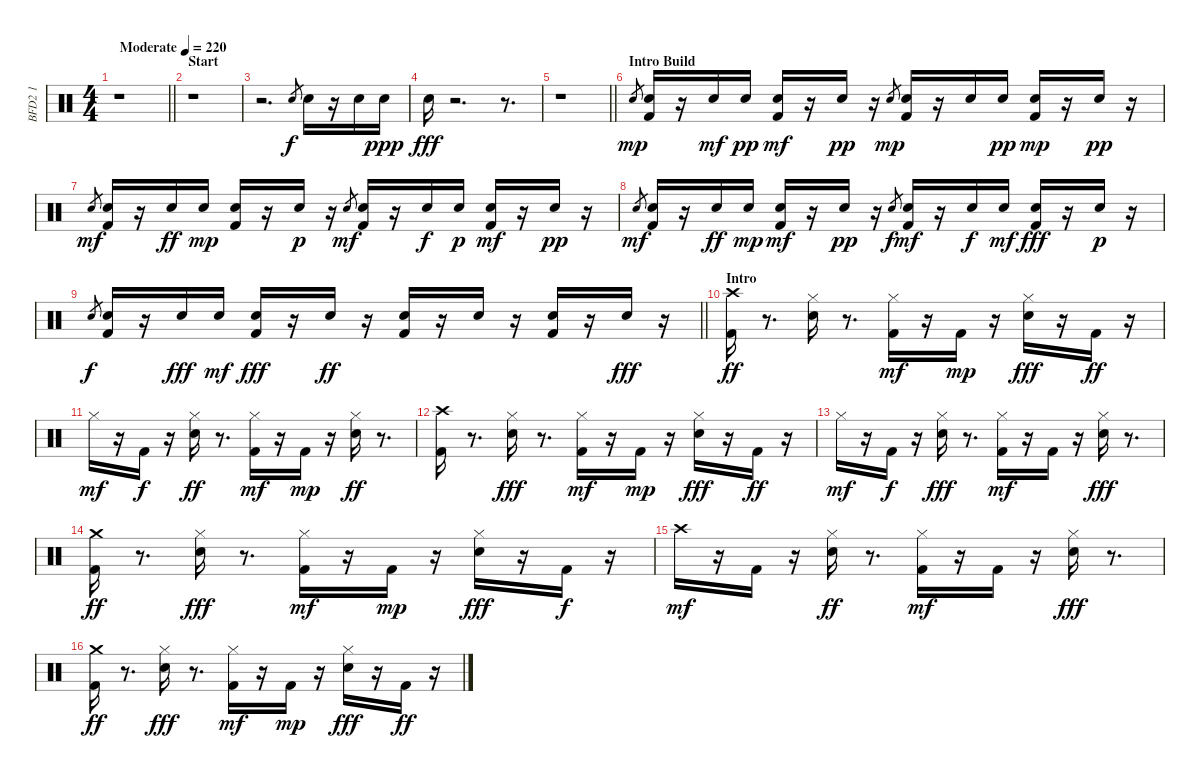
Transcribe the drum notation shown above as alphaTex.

\track ("BFD2 1" "BFD2 1") {instrument percussion}
\staff {score}
\articulation defaults
\ts (4 4)
\tempo (220 "Moderate")
\clef neutral
\barLineRight lightlight
\ks c
r.1{dy f} |
\section ("" "Start")
r.1 |
r.2{d} "Snare (hit) 2".8{gr} "Snare (hit) 2".16 r.16 "Snare (hit) 2".16 "Snare (hit) 2".16{dy ppp} |
"Snare (hit) 2".16{dy fff} r.2{d} r.8{d} |
\barLineRight lightlight
r.1 |
\section ("" "Intro Build")
"Snare (hit) 2".8{gr dy mp} ("Kick (hit) 2" "Snare (hit) 2").16 r.16 "Snare (hit) 2".16{dy mf} "Snare (hit) 2".16{dy pp} ("Kick (hit) 2" "Snare (hit) 2").16{dy mf} r.16 "Snare (hit) 2".16{dy pp} r.16 "Snare (hit) 2".8{gr dy mp} ("Kick (hit) 2" "Snare (hit) 2").16 r.16 "Snare (hit) 2".16 "Snare (hit) 2".16{dy pp} ("Kick (hit) 2" "Snare (hit) 2").16{dy mp} r.16 "Snare (hit) 2".16{dy pp} r.16 |
"Snare (hit) 2".8{gr dy mf} ("Snare (hit) 2" "Kick (hit) 2").16 r.16 "Snare (hit) 2".16{dy ff} "Snare (hit) 2".16{dy mp} ("Snare (hit) 2" "Kick (hit) 2").16 r.16 "Snare (hit) 2".16{dy p} r.16 "Snare (hit) 2".8{gr dy mf} ("Snare (hit) 2" "Kick (hit) 2").16 r.16 "Snare (hit) 2".16{dy f} "Snare (hit) 2".16{dy p} ("Snare (hit) 2" "Kick (hit) 2").16{dy mf} r.16 "Snare (hit) 2".16{dy pp} r.16 |
"Snare (hit) 2".8{gr dy mf} ("Snare (hit) 2" "Kick (hit) 2").16 r.16 "Snare (hit) 2".16{dy ff} "Snare (hit) 2".16{dy mp} ("Snare (hit) 2" "Kick (hit) 2").16{dy mf} r.16 "Snare (hit) 2".16{dy pp} r.16 "Snare (hit) 2".8{gr dy f} ("Kick (hit) 2" "Snare (hit) 2").16{dy mf} r.16 "Snare (hit) 2".16{dy f} "Snare (hit) 2".16{dy mf} ("Kick (hit) 2" "Snare (hit) 2").16{dy fff} r.16 "Snare (hit) 2".16{dy p} r.16 |
\barLineRight lightlight "Snare (hit) 2".8{gr dy f}
("Snare (hit) 2" "Kick (hit) 2").16 r.16 "Snare (hit) 2".16{dy fff} "Snare (hit) 2".16{dy mf} ("Snare (hit) 2" "Kick (hit) 2").16{dy fff} r.16 "Snare (hit) 2".16{dy ff} r.16 ("Snare (hit) 2" "Kick (hit) 2").16 r.16 "Snare (hit) 2".16 r.16 ("Snare (hit) 2" "Kick (hit) 2").16 r.16 "Snare (hit) 2".16{dy fff} r.16 |
\section ("" "Intro")
("Crash high (hit)" "Kick (hit) 2").16{dy ff} r.8{d} ("Hi-Hat (closed)" "Snare (hit) 2").16 r.8{d} ("Hi-Hat (closed)" "Kick (hit) 2").16{dy mf} r.16 "Kick (hit) 2".16{dy mp} r.16 ("Hi-Hat (closed)" "Snare (hit) 2").16{dy fff} r.16 "Kick (hit) 2".16{dy ff} r.16 |
"Hi-Hat (closed)".16{dy mf} r.16 "Kick (hit) 2".16{dy f} r.16 ("Hi-Hat (closed)" "Snare (hit) 2").16{dy ff} r.8{d} ("Hi-Hat (closed)" "Kick (hit) 2").16{dy mf} r.16 "Kick (hit) 2".16{dy mp} r.16 ("Hi-Hat (closed)" "Snare (hit) 2").16{dy ff} r.8{d} |
("Crash high (hit)" "Kick (hit) 2").16 r.8{d} ("Hi-Hat (closed)" "Snare (hit) 2").16{dy fff} r.8{d} ("Hi-Hat (closed)" "Kick (hit) 2").16{dy mf} r.16 "Kick (hit) 2".16{dy mp} r.16 ("Hi-Hat (closed)" "Snare (hit) 2").16{dy fff} r.16 "Kick (hit) 2".16{dy ff} r.16 |
"Hi-Hat (closed)".16{dy mf} r.16 "Kick (hit) 2".16{dy f} r.16 ("Hi-Hat (closed)" "Snare (hit) 2").16{dy fff} r.8{d} ("Hi-Hat (closed)" "Kick (hit) 2").16{dy mf} r.16 "Kick (hit) 2".16 r.16 ("Hi-Hat (closed)" "Snare (hit) 2").16{dy fff} r.8{d} |
("Crash medium (hit)" "Kick (hit) 2").16{dy ff} r.8{d} ("Hi-Hat (closed)" "Snare (hit) 2").16{dy fff} r.8{d} ("Hi-Hat (closed)" "Kick (hit) 2").16{dy mf} r.16 "Kick (hit) 2".16{dy mp} r.16 ("Hi-Hat (closed)" "Snare (hit) 2").16{dy fff} r.16 "Kick (hit) 2".16{dy f} r.16 |
"Crash high (hit)".16{dy mf} r.16 "Kick (hit) 2".16 r.16 ("Hi-Hat (closed)" "Snare (hit) 2").16{dy ff} r.8{d} ("Hi-Hat (closed)" "Kick (hit) 2").16{dy mf} r.16 "Kick (hit) 2".16 r.16 ("Hi-Hat (closed)" "Snare (hit) 2").16{dy fff} r.8{d} |
("Crash medium (hit)" "Kick (hit) 2").16{dy ff} r.8{d} ("Hi-Hat (closed)" "Snare (hit) 2").16{dy fff} r.8{d} ("Hi-Hat (closed)" "Kick (hit) 2").16{dy mf} r.16 "Kick (hit) 2".16{dy mp} r.16 ("Hi-Hat (closed)" "Snare (hit) 2").16{dy fff} r.16 "Kick (hit) 2".16{dy ff} r.16
